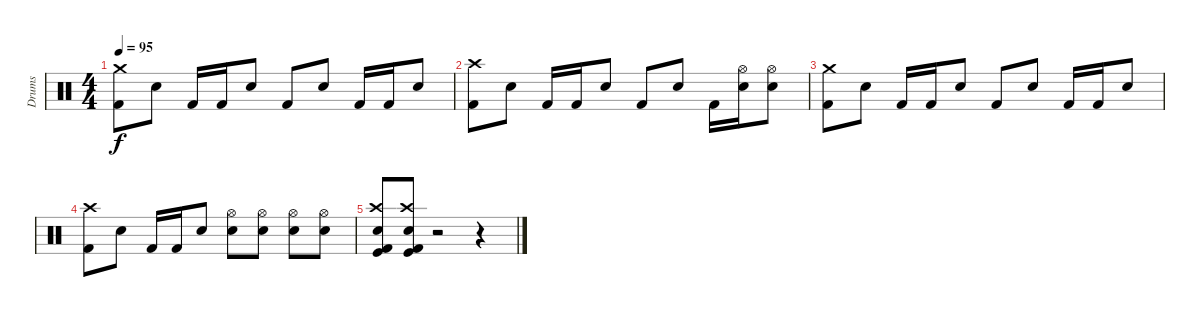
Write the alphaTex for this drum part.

\track ("Drums" "Drums") {instrument percussion}
\staff {score}
\articulation defaults
\ts (4 4)
\tempo 95
\clef neutral
\ks c
("Crash medium (hit)" "Kick (hit) 2").8{dy f} "Electric Snare (hit)".8 "Kick (hit) 2".16 "Kick (hit) 2".16 "Electric Snare (hit)".8 "Kick (hit) 2".8 "Electric Snare (hit)".8 "Kick (hit) 2".16 "Kick (hit) 2".16 "Electric Snare (hit)".8 |
("Crash high (hit)" "Kick (hit) 2").8 "Electric Snare (hit)".8 "Kick (hit) 2".16 "Kick (hit) 2".16 "Electric Snare (hit)".8 "Kick (hit) 2".8 "Electric Snare (hit)".8 "Kick (hit) 2".16 ("Hi-Hat (open)" "Electric Snare (hit)").16 ("Hi-Hat (open)" "Electric Snare (hit)").8 |
("Crash medium (hit)" "Kick (hit) 2").8 "Electric Snare (hit)".8 "Kick (hit) 2".16 "Kick (hit) 2".16 "Electric Snare (hit)".8 "Kick (hit) 2".8 "Electric Snare (hit)".8 "Kick (hit) 2".16 "Kick (hit) 2".16 "Electric Snare (hit)".8 |
("Crash high (hit)" "Kick (hit) 2").8 "Electric Snare (hit)".8 "Kick (hit) 2".16 "Kick (hit) 2".16 "Electric Snare (hit)".8 ("Hi-Hat (open)" "Electric Snare (hit)").8 ("Hi-Hat (open)" "Electric Snare (hit)").8 ("Hi-Hat (open)" "Electric Snare (hit)").8 ("Hi-Hat (open)" "Electric Snare (hit)").8 |
("Crash high (hit)" "Electric Snare (hit)" "Kick (hit)" "Kick (hit) 2").8 ("Crash high (hit)" "Electric Snare (hit)" "Kick (hit)" "Kick (hit) 2").8 r.2 r.4
